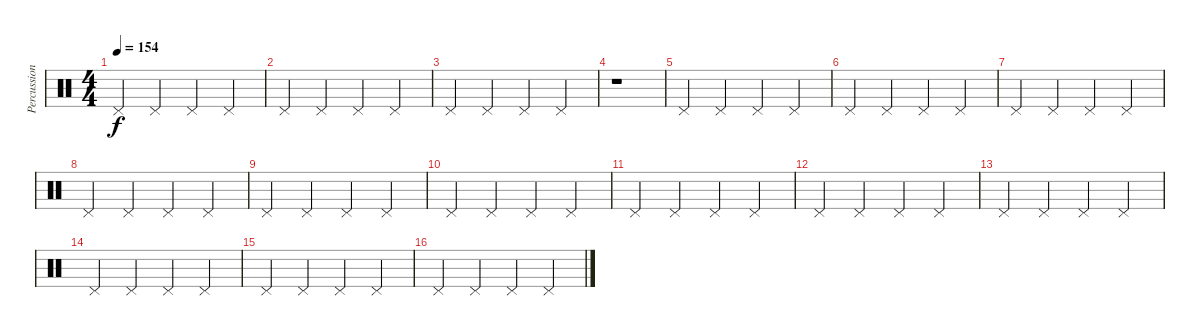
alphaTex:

\track ("Percussion" "Percussion") {instrument percussion}
\staff {score}
\articulation defaults
\ts (4 4)
\tempo 154
\clef neutral
\ks c "Pedal Hi-Hat (hit)".4{dy f} "Pedal Hi-Hat (hit)".4 "Pedal Hi-Hat (hit)".4 "Pedal Hi-Hat (hit)".4
|
"Pedal Hi-Hat (hit)".4 "Pedal Hi-Hat (hit)".4 "Pedal Hi-Hat (hit)".4 "Pedal Hi-Hat (hit)".4 |
"Pedal Hi-Hat (hit)".4 "Pedal Hi-Hat (hit)".4 "Pedal Hi-Hat (hit)".4 "Pedal Hi-Hat (hit)".4 |
r.1 |
"Pedal Hi-Hat (hit)".4 "Pedal Hi-Hat (hit)".4 "Pedal Hi-Hat (hit)".4 "Pedal Hi-Hat (hit)".4 |
"Pedal Hi-Hat (hit)".4 "Pedal Hi-Hat (hit)".4 "Pedal Hi-Hat (hit)".4 "Pedal Hi-Hat (hit)".4 |
"Pedal Hi-Hat (hit)".4 "Pedal Hi-Hat (hit)".4 "Pedal Hi-Hat (hit)".4 "Pedal Hi-Hat (hit)".4 |
"Pedal Hi-Hat (hit)".4 "Pedal Hi-Hat (hit)".4 "Pedal Hi-Hat (hit)".4 "Pedal Hi-Hat (hit)".4 |
"Pedal Hi-Hat (hit)".4 "Pedal Hi-Hat (hit)".4 "Pedal Hi-Hat (hit)".4 "Pedal Hi-Hat (hit)".4 |
"Pedal Hi-Hat (hit)".4 "Pedal Hi-Hat (hit)".4 "Pedal Hi-Hat (hit)".4 "Pedal Hi-Hat (hit)".4 |
"Pedal Hi-Hat (hit)".4 "Pedal Hi-Hat (hit)".4 "Pedal Hi-Hat (hit)".4 "Pedal Hi-Hat (hit)".4 |
"Pedal Hi-Hat (hit)".4 "Pedal Hi-Hat (hit)".4 "Pedal Hi-Hat (hit)".4 "Pedal Hi-Hat (hit)".4 |
"Pedal Hi-Hat (hit)".4 "Pedal Hi-Hat (hit)".4 "Pedal Hi-Hat (hit)".4 "Pedal Hi-Hat (hit)".4 |
"Pedal Hi-Hat (hit)".4 "Pedal Hi-Hat (hit)".4 "Pedal Hi-Hat (hit)".4 "Pedal Hi-Hat (hit)".4 |
"Pedal Hi-Hat (hit)".4 "Pedal Hi-Hat (hit)".4 "Pedal Hi-Hat (hit)".4 "Pedal Hi-Hat (hit)".4 |
"Pedal Hi-Hat (hit)".4 "Pedal Hi-Hat (hit)".4 "Pedal Hi-Hat (hit)".4 "Pedal Hi-Hat (hit)".4
